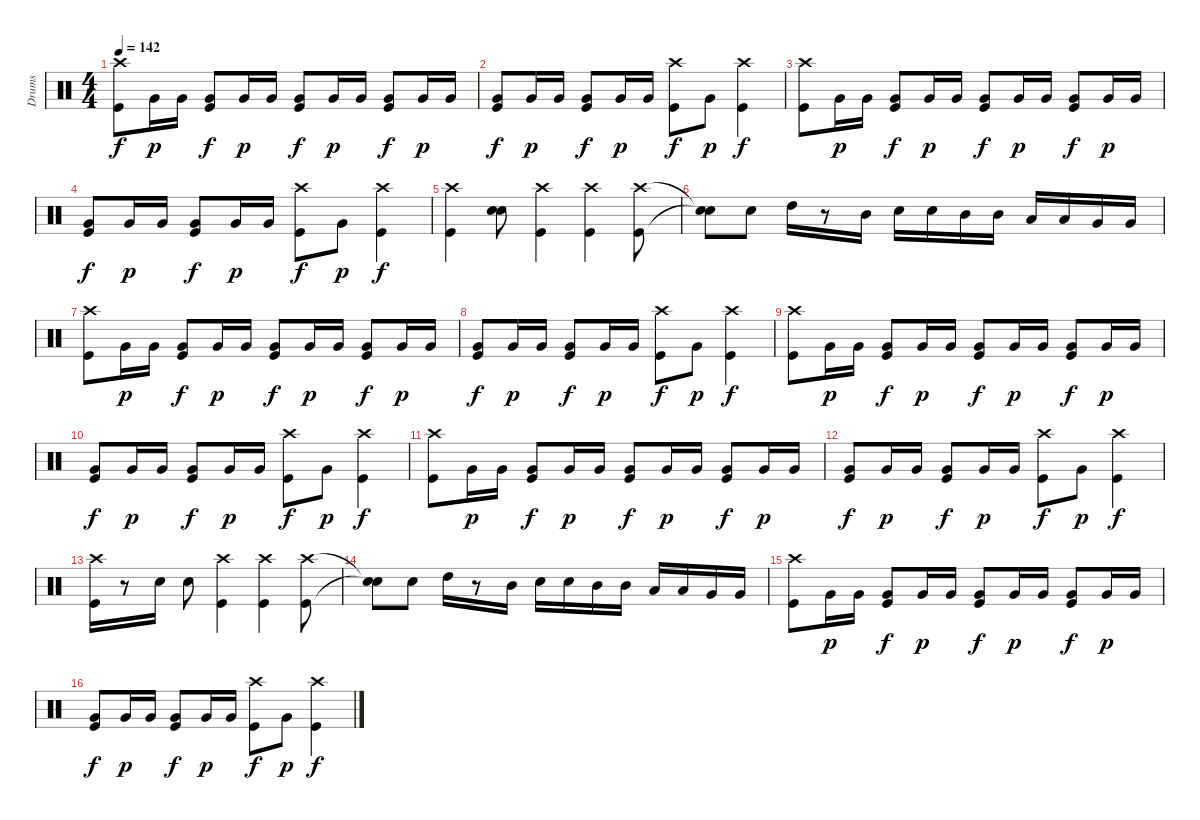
\track ("Drums" "Drums") {instrument percussion}
\staff {score}
\articulation defaults
\ts (4 4)
\tempo 142
\clef neutral
\ks c
("Kick (hit)" "Crash high (hit)").8{dy f} "Very Low Tom (hit)".16{dy p} "Very Low Tom (hit)".16 ("Kick (hit)" "Very Low Tom (hit)").8{dy f} "Very Low Tom (hit)".16{dy p} "Very Low Tom (hit)".16 ("Kick (hit)" "Very Low Tom (hit)").8{dy f} "Very Low Tom (hit)".16{dy p} "Very Low Tom (hit)".16 ("Very Low Tom (hit)" "Kick (hit)").8{dy f} "Very Low Tom (hit)".16{dy p} "Very Low Tom (hit)".16 |
("Very Low Tom (hit)" "Kick (hit)").8{dy f} "Very Low Tom (hit)".16{dy p} "Very Low Tom (hit)".16 ("Very Low Tom (hit)" "Kick (hit)").8{dy f} "Very Low Tom (hit)".16{dy p} "Very Low Tom (hit)".16 ("Kick (hit)" "Crash high (hit)").8{dy f} "Very Low Tom (hit)".8{dy p} ("Crash high (hit)" "Kick (hit)").4{dy f} |
("Kick (hit)" "Crash high (hit)").8 "Very Low Tom (hit)".16{dy p} "Very Low Tom (hit)".16 ("Kick (hit)" "Very Low Tom (hit)").8{dy f} "Very Low Tom (hit)".16{dy p} "Very Low Tom (hit)".16 ("Kick (hit)" "Very Low Tom (hit)").8{dy f} "Very Low Tom (hit)".16{dy p} "Very Low Tom (hit)".16 ("Very Low Tom (hit)" "Kick (hit)").8{dy f} "Very Low Tom (hit)".16{dy p} "Very Low Tom (hit)".16 |
("Very Low Tom (hit)" "Kick (hit)").8{dy f} "Very Low Tom (hit)".16{dy p} "Very Low Tom (hit)".16 ("Very Low Tom (hit)" "Kick (hit)").8{dy f} "Very Low Tom (hit)".16{dy p} "Very Low Tom (hit)".16 ("Kick (hit)" "Crash high (hit)").8{dy f} "Very Low Tom (hit)".8{dy p} ("Crash high (hit)" "Kick (hit)").4{dy f} |
("Crash high (hit)" "Kick (hit)").4 ("Snare (hit) 2" "Snare (hit) 2").8 ("Kick (hit)" "Crash high (hit)").4 ("Crash high (hit)" "Kick (hit)").4 ("Crash high (hit)" "Kick (hit)").8 |
("Snare (hit)"{t} "Snare (hit)"{t}).8 "Snare (hit) 2".8 "High Tom (hit)".16 r.8 "Mid Tom (hit)".16 "Snare (hit) 2".16 "Snare (hit) 2".16 "Mid Tom (hit)".16 "Mid Tom (hit)".16 "Low Tom (hit)".16 "Low Tom (hit)".16 "Very Low Tom (hit)".16 "Very Low Tom (hit)".16 |
("Kick (hit)" "Crash high (hit)").8 "Very Low Tom (hit)".16{dy p} "Very Low Tom (hit)".16 ("Kick (hit)" "Very Low Tom (hit)").8{dy f} "Very Low Tom (hit)".16{dy p} "Very Low Tom (hit)".16 ("Kick (hit)" "Very Low Tom (hit)").8{dy f} "Very Low Tom (hit)".16{dy p} "Very Low Tom (hit)".16 ("Very Low Tom (hit)" "Kick (hit)").8{dy f} "Very Low Tom (hit)".16{dy p} "Very Low Tom (hit)".16 |
("Very Low Tom (hit)" "Kick (hit)").8{dy f} "Very Low Tom (hit)".16{dy p} "Very Low Tom (hit)".16 ("Very Low Tom (hit)" "Kick (hit)").8{dy f} "Very Low Tom (hit)".16{dy p} "Very Low Tom (hit)".16 ("Kick (hit)" "Crash high (hit)").8{dy f} "Very Low Tom (hit)".8{dy p} ("Crash high (hit)" "Kick (hit)").4{dy f} |
("Kick (hit)" "Crash high (hit)").8 "Very Low Tom (hit)".16{dy p} "Very Low Tom (hit)".16 ("Kick (hit)" "Very Low Tom (hit)").8{dy f} "Very Low Tom (hit)".16{dy p} "Very Low Tom (hit)".16 ("Kick (hit)" "Very Low Tom (hit)").8{dy f} "Very Low Tom (hit)".16{dy p} "Very Low Tom (hit)".16 ("Very Low Tom (hit)" "Kick (hit)").8{dy f} "Very Low Tom (hit)".16{dy p} "Very Low Tom (hit)".16 |
("Very Low Tom (hit)" "Kick (hit)").8{dy f} "Very Low Tom (hit)".16{dy p} "Very Low Tom (hit)".16 ("Very Low Tom (hit)" "Kick (hit)").8{dy f} "Very Low Tom (hit)".16{dy p} "Very Low Tom (hit)".16 ("Kick (hit)" "Crash high (hit)").8{dy f} "Very Low Tom (hit)".8{dy p} ("Crash high (hit)" "Kick (hit)").4{dy f} |
("Kick (hit)" "Crash high (hit)").8 "Very Low Tom (hit)".16{dy p} "Very Low Tom (hit)".16 ("Kick (hit)" "Very Low Tom (hit)").8{dy f} "Very Low Tom (hit)".16{dy p} "Very Low Tom (hit)".16 ("Kick (hit)" "Very Low Tom (hit)").8{dy f} "Very Low Tom (hit)".16{dy p} "Very Low Tom (hit)".16 ("Very Low Tom (hit)" "Kick (hit)").8{dy f} "Very Low Tom (hit)".16{dy p} "Very Low Tom (hit)".16 |
("Very Low Tom (hit)" "Kick (hit)").8{dy f} "Very Low Tom (hit)".16{dy p} "Very Low Tom (hit)".16 ("Very Low Tom (hit)" "Kick (hit)").8{dy f} "Very Low Tom (hit)".16{dy p} "Very Low Tom (hit)".16 ("Kick (hit)" "Crash high (hit)").8{dy f} "Very Low Tom (hit)".8{dy p} ("Crash high (hit)" "Kick (hit)").4{dy f} |
("Crash high (hit)" "Kick (hit)").16 r.8 "Snare (hit) 2".16 "Snare (hit) 2".8 ("Kick (hit)" "Crash high (hit)").4 ("Crash high (hit)" "Kick (hit)").4 ("Crash high (hit)" "Kick (hit)").8 |
("Snare (hit)"{t} "Snare (hit)"{t}).8 "Snare (hit) 2".8 "High Tom (hit)".16 r.8 "Mid Tom (hit)".16 "Snare (hit) 2".16 "Snare (hit) 2".16 "Mid Tom (hit)".16 "Mid Tom (hit)".16 "Low Tom (hit)".16 "Low Tom (hit)".16 "Very Low Tom (hit)".16 "Very Low Tom (hit)".16 |
("Kick (hit)" "Crash high (hit)").8 "Very Low Tom (hit)".16{dy p} "Very Low Tom (hit)".16 ("Kick (hit)" "Very Low Tom (hit)").8{dy f} "Very Low Tom (hit)".16{dy p} "Very Low Tom (hit)".16 ("Kick (hit)" "Very Low Tom (hit)").8{dy f} "Very Low Tom (hit)".16{dy p} "Very Low Tom (hit)".16 ("Very Low Tom (hit)" "Kick (hit)").8{dy f} "Very Low Tom (hit)".16{dy p} "Very Low Tom (hit)".16 |
("Very Low Tom (hit)" "Kick (hit)").8{dy f} "Very Low Tom (hit)".16{dy p} "Very Low Tom (hit)".16 ("Very Low Tom (hit)" "Kick (hit)").8{dy f} "Very Low Tom (hit)".16{dy p} "Very Low Tom (hit)".16 ("Kick (hit)" "Crash high (hit)").8{dy f} "Very Low Tom (hit)".8{dy p} ("Crash high (hit)" "Kick (hit)").4{dy f}
